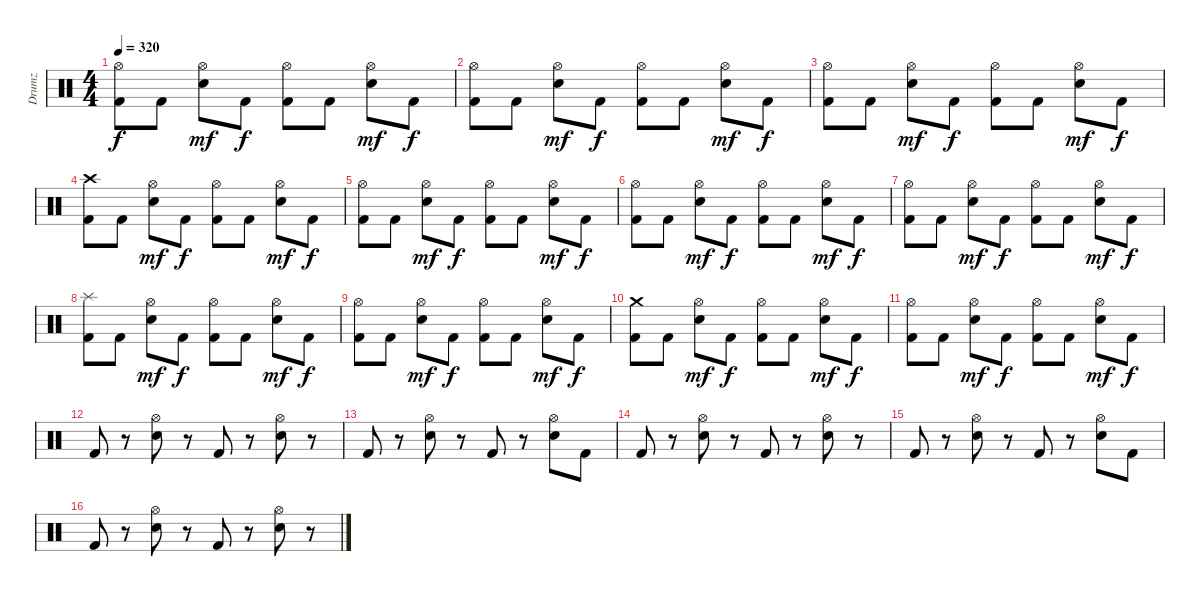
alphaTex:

\track ("Drumz" "Drumz") {instrument percussion}
\staff {score}
\articulation defaults
\ts (4 4)
\tempo 320
\clef neutral
\ks c
("Hi-Hat (open)" "Kick (hit) 2").8{dy f} "Kick (hit) 2".8 ("Snare (hit) 2" "Hi-Hat (open)").8{dy mf} "Kick (hit) 2".8{dy f} ("Kick (hit) 2" "Hi-Hat (open)").8 "Kick (hit) 2".8 ("Snare (hit) 2" "Hi-Hat (open)").8{dy mf} "Kick (hit) 2".8{dy f} |
("Hi-Hat (open)" "Kick (hit) 2").8 "Kick (hit) 2".8 ("Snare (hit) 2" "Hi-Hat (open)").8{dy mf} "Kick (hit) 2".8{dy f} ("Kick (hit) 2" "Hi-Hat (open)").8 "Kick (hit) 2".8 ("Snare (hit) 2" "Hi-Hat (open)").8{dy mf} "Kick (hit) 2".8{dy f} |
("Hi-Hat (open)" "Kick (hit) 2").8 "Kick (hit) 2".8 ("Snare (hit) 2" "Hi-Hat (open)").8{dy mf} "Kick (hit) 2".8{dy f} ("Kick (hit) 2" "Hi-Hat (open)").8 "Kick (hit) 2".8 ("Snare (hit) 2" "Hi-Hat (open)").8{dy mf} "Kick (hit) 2".8{dy f} |
("Crash high (hit)" "Kick (hit) 2").8 "Kick (hit) 2".8 ("Snare (hit) 2" "Hi-Hat (open)").8{dy mf} "Kick (hit) 2".8{dy f} ("Kick (hit) 2" "Hi-Hat (open)").8 "Kick (hit) 2".8 ("Snare (hit) 2" "Hi-Hat (open)").8{dy mf} "Kick (hit) 2".8{dy f} |
("Hi-Hat (open)" "Kick (hit) 2").8 "Kick (hit) 2".8 ("Snare (hit) 2" "Hi-Hat (open)").8{dy mf} "Kick (hit) 2".8{dy f} ("Kick (hit) 2" "Hi-Hat (open)").8 "Kick (hit) 2".8 ("Snare (hit) 2" "Hi-Hat (open)").8{dy mf} "Kick (hit) 2".8{dy f} |
("Hi-Hat (open)" "Kick (hit) 2").8 "Kick (hit) 2".8 ("Snare (hit) 2" "Hi-Hat (open)").8{dy mf} "Kick (hit) 2".8{dy f} ("Kick (hit) 2" "Hi-Hat (open)").8 "Kick (hit) 2".8 ("Snare (hit) 2" "Hi-Hat (open)").8{dy mf} "Kick (hit) 2".8{dy f} |
("Hi-Hat (open)" "Kick (hit) 2").8 "Kick (hit) 2".8 ("Snare (hit) 2" "Hi-Hat (open)").8{dy mf} "Kick (hit) 2".8{dy f} ("Kick (hit) 2" "Hi-Hat (open)").8 "Kick (hit) 2".8 ("Snare (hit) 2" "Hi-Hat (open)").8{dy mf} "Kick (hit) 2".8{dy f} |
("Splash (hit)" "Kick (hit) 2").8 "Kick (hit) 2".8 ("Snare (hit) 2" "Hi-Hat (open)").8{dy mf} "Kick (hit) 2".8{dy f} ("Kick (hit) 2" "Hi-Hat (open)").8 "Kick (hit) 2".8 ("Snare (hit) 2" "Hi-Hat (open)").8{dy mf} "Kick (hit) 2".8{dy f} |
("Hi-Hat (open)" "Kick (hit) 2").8 "Kick (hit) 2".8 ("Snare (hit) 2" "Hi-Hat (open)").8{dy mf} "Kick (hit) 2".8{dy f} ("Kick (hit) 2" "Hi-Hat (open)").8 "Kick (hit) 2".8 ("Snare (hit) 2" "Hi-Hat (open)").8{dy mf} "Kick (hit) 2".8{dy f} |
("Crash medium (hit)" "Kick (hit) 2").8 "Kick (hit) 2".8 ("Snare (hit) 2" "Hi-Hat (open)").8{dy mf} "Kick (hit) 2".8{dy f} ("Kick (hit) 2" "Hi-Hat (open)").8 "Kick (hit) 2".8 ("Snare (hit) 2" "Hi-Hat (open)").8{dy mf} "Kick (hit) 2".8{dy f} |
("Hi-Hat (open)" "Kick (hit) 2").8 "Kick (hit) 2".8 ("Snare (hit) 2" "Hi-Hat (open)").8{dy mf} "Kick (hit) 2".8{dy f} ("Kick (hit) 2" "Hi-Hat (open)").8 "Kick (hit) 2".8 ("Snare (hit) 2" "Hi-Hat (open)").8{dy mf} "Kick (hit) 2".8{dy f} |
"Kick (hit) 2".8 r.8 ("Snare (hit) 2" "Hi-Hat (open)").8 r.8 "Kick (hit) 2".8 r.8 ("Snare (hit) 2" "Hi-Hat (open)").8 r.8 |
"Kick (hit) 2".8 r.8 ("Snare (hit) 2" "Hi-Hat (open)").8 r.8 "Kick (hit) 2".8 r.8 ("Snare (hit) 2" "Hi-Hat (open)").8 "Kick (hit) 2".8 |
"Kick (hit) 2".8 r.8 ("Snare (hit) 2" "Hi-Hat (open)").8 r.8 "Kick (hit) 2".8 r.8 ("Snare (hit) 2" "Hi-Hat (open)").8 r.8 |
"Kick (hit) 2".8 r.8 ("Snare (hit) 2" "Hi-Hat (open)").8 r.8 "Kick (hit) 2".8 r.8 ("Snare (hit) 2" "Hi-Hat (open)").8 "Kick (hit) 2".8 |
"Kick (hit) 2".8 r.8 ("Snare (hit) 2" "Hi-Hat (open)").8 r.8 "Kick (hit) 2".8 r.8 ("Snare (hit) 2" "Hi-Hat (open)").8 r.8
